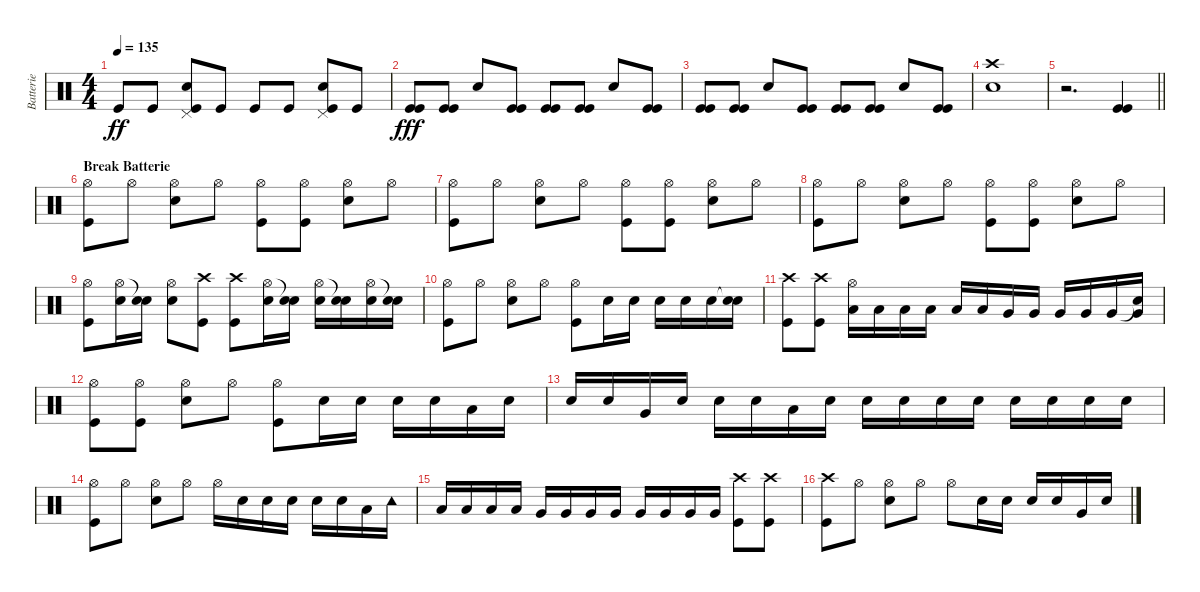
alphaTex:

\track ("Batterie" "Batterie") {instrument percussion}
\staff {score}
\articulation defaults
\ts (4 4)
\tempo 135
\clef neutral
\ks c "Kick (hit)".8{dy ff} "Kick (hit)".8
("Pedal Hi-Hat (hit)" "Electric Snare (hit)" "Kick (hit)").8 "Kick (hit)".8 "Kick (hit)".8 "Kick (hit)".8 ("Pedal Hi-Hat (hit)" "Electric Snare (hit)" "Kick (hit)").8 "Kick (hit)".8 |
("Kick (hit)" "Kick (hit)").8{dy fff} ("Kick (hit)" "Kick (hit)").8 "Electric Snare (hit)".8 ("Kick (hit)" "Kick (hit)").8 ("Kick (hit)" "Kick (hit)").8 ("Kick (hit)" "Kick (hit)").8 "Electric Snare (hit)".8 ("Kick (hit)" "Kick (hit)").8 |
("Kick (hit)" "Kick (hit)").8 ("Kick (hit)" "Kick (hit)").8 "Electric Snare (hit)".8 ("Kick (hit)" "Kick (hit)").8 ("Kick (hit)" "Kick (hit)").8 ("Kick (hit)" "Kick (hit)").8 "Electric Snare (hit)".8 ("Kick (hit)" "Kick (hit)").8 |
("Crash high (hit)" "Electric Snare (hit)").1 |
\barLineRight lightlight
r.2{d} ("Kick (hit)" "Kick (hit)").4 |
\section ("" "Break Batterie")
("Hi-Hat (open)" "Kick (hit)").8 "Hi-Hat (open)".8 ("Hi-Hat (open)" "Electric Snare (hit)").8 "Hi-Hat (open)".8 ("Hi-Hat (open)" "Kick (hit)").8 ("Hi-Hat (open)" "Kick (hit)").8 ("Hi-Hat (open)" "Electric Snare (hit)").8 "Hi-Hat (open)".8 |
("Hi-Hat (open)" "Kick (hit)").8 "Hi-Hat (open)".8 ("Hi-Hat (open)" "Electric Snare (hit)").8 "Hi-Hat (open)".8 ("Hi-Hat (open)" "Kick (hit)").8 ("Hi-Hat (open)" "Kick (hit)").8 ("Hi-Hat (open)" "Electric Snare (hit)").8 "Hi-Hat (open)".8 |
("Hi-Hat (open)" "Kick (hit)").8 "Hi-Hat (open)".8 ("Hi-Hat (open)" "Electric Snare (hit)").8 "Hi-Hat (open)".8 ("Hi-Hat (open)" "Kick (hit)").8 ("Hi-Hat (open)" "Kick (hit)").8 ("Hi-Hat (open)" "Electric Snare (hit)").8 "Hi-Hat (open)".8 |
("Hi-Hat (open)" "Kick (hit)").8 ("Hi-Hat (open)" "Electric Snare (hit)").16 ("Snare (hit)"{t} "Electric Snare (hit)").16 ("Hi-Hat (open)" "Electric Snare (hit)").8 ("Crash high (hit)" "Kick (hit)").8 ("Crash high (hit)" "Kick (hit)").8 ("Hi-Hat (open)" "Electric Snare (hit)").16 ("Snare (hit)"{t} "Electric Snare (hit)").16 ("Hi-Hat (open)" "Electric Snare (hit)").16 ("Snare (hit)"{t} "Electric Snare (hit)").16 ("Hi-Hat (open)" "Electric Snare (hit)").16 ("Snare (hit)"{t} "Electric Snare (hit)").16 |
("Hi-Hat (open)" "Kick (hit)").8 "Hi-Hat (open)".8 ("Hi-Hat (open)" "Electric Snare (hit)").8 "Hi-Hat (open)".8 ("Hi-Hat (open)" "Kick (hit)").8 "Electric Snare (hit)".16 "Electric Snare (hit)".16 "Electric Snare (hit)".16 "Electric Snare (hit)".16 "Electric Snare (hit)".16 ("Snare (hit)"{t} "Electric Snare (hit)").16 |
("Crash high (hit)" "Kick (hit)").8 ("Crash high (hit)" "Kick (hit)").8 ("Hi-Hat (open)" "Low Tom (hit)").16 "Low Tom (hit)".16 "Low Tom (hit)".16 "Low Tom (hit)".16 "Low Tom (hit)".16 "Low Tom (hit)".16 "Very Low Tom (hit)".16 "Very Low Tom (hit)".16 "Very Low Tom (hit)".16 "Very Low Tom (hit)".16 "Very Low Tom (hit)".16 ("Snare (hit)"{t} "Very Low Tom (hit)").16 |
("Hi-Hat (open)" "Kick (hit)").8 ("Hi-Hat (open)" "Kick (hit)").8 ("Hi-Hat (open)" "Electric Snare (hit)").8 "Hi-Hat (open)".8 ("Hi-Hat (open)" "Kick (hit)").8 "Electric Snare (hit)".16 "Electric Snare (hit)".16 "Electric Snare (hit)".16 "Electric Snare (hit)".16 "Low Tom (hit)".16 "Electric Snare (hit)".16 |
"Electric Snare (hit)".16 "Electric Snare (hit)".16 "Very Low Tom (hit)".16 "Electric Snare (hit)".16 "Electric Snare (hit)".16 "Electric Snare (hit)".16 "Low Tom (hit)".16 "Electric Snare (hit)".16 "Electric Snare (hit)".16 "Electric Snare (hit)".16 "Electric Snare (hit)".16 "Electric Snare (hit)".16 "Electric Snare (hit)".16 "Electric Snare (hit)".16 "Electric Snare (hit)".16 "Electric Snare (hit)".16 |
("Hi-Hat (open)" "Kick (hit)").8 "Hi-Hat (open)".8 ("Hi-Hat (open)" "Electric Snare (hit)").8 "Hi-Hat (open)".8 "Hi-Hat (open)".16 "Electric Snare (hit)".16 "Electric Snare (hit)".16 "Electric Snare (hit)".16 "Electric Snare (hit)".16 "Electric Snare (hit)".16 "Low Tom (hit)".16 "Tambourine (hit)".16 |
"Low Tom (hit)".16 "Low Tom (hit)".16 "Low Tom (hit)".16 "Low Tom (hit)".16 "Very Low Tom (hit)".16 "Very Low Tom (hit)".16 "Very Low Tom (hit)".16 "Very Low Tom (hit)".16 "Very Low Tom (hit)".16 "Very Low Tom (hit)".16 "Very Low Tom (hit)".16 "Very Low Tom (hit)".16 ("Crash high (hit)" "Kick (hit)").8 ("Crash high (hit)" "Kick (hit)").8 |
("Crash high (hit)" "Kick (hit)").8 "Hi-Hat (open)".8 ("Hi-Hat (open)" "Electric Snare (hit)").8 "Hi-Hat (open)".8 "Hi-Hat (open)".8 "Electric Snare (hit)".16 "Electric Snare (hit)".16 "Electric Snare (hit)".16 "Electric Snare (hit)".16 "Very Low Tom (hit)".16 "Electric Snare (hit)".16
